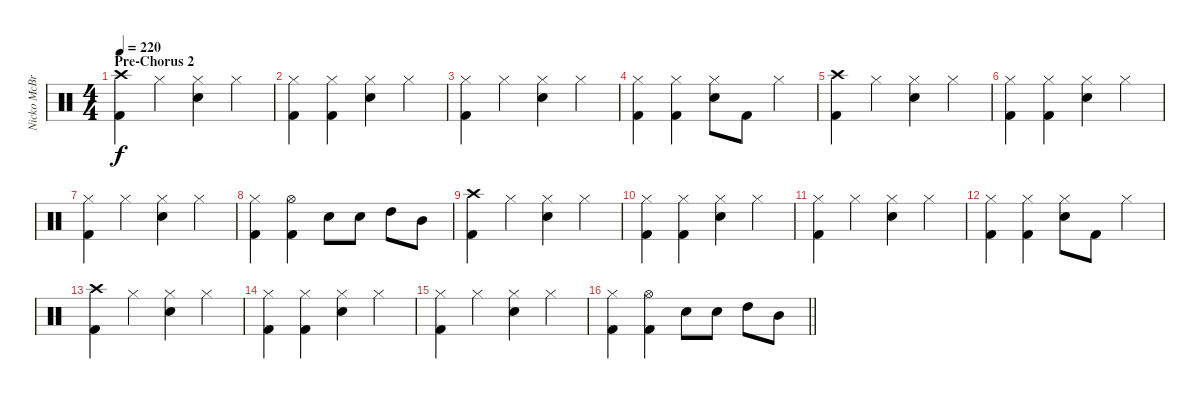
\track ("Nicko McBrain" "Nicko McBr") {instrument percussion}
\staff {score}
\articulation defaults
\ts (4 4)
\section ("" "Pre-Chorus 2")
\tempo 220
\clef neutral
\ks c
("Crash high (hit)" "Kick (hit) 2").4{dy f} "Hi-Hat (closed)".4 ("Hi-Hat (closed)" "Electric Snare (hit)").4 "Hi-Hat (closed)".4 |
("Hi-Hat (closed)" "Kick (hit) 2").4 ("Hi-Hat (closed)" "Kick (hit) 2").4 ("Hi-Hat (closed)" "Electric Snare (hit)").4 "Hi-Hat (closed)".4 |
("Hi-Hat (closed)" "Kick (hit) 2").4 "Hi-Hat (closed)".4 ("Hi-Hat (closed)" "Electric Snare (hit)").4 "Hi-Hat (closed)".4 |
("Hi-Hat (closed)" "Kick (hit) 2").4 ("Hi-Hat (closed)" "Kick (hit) 2").4 ("Hi-Hat (closed)" "Electric Snare (hit)").8 "Kick (hit) 2".8 "Hi-Hat (closed)".4 |
("Crash high (hit)" "Kick (hit) 2").4 "Hi-Hat (closed)".4 ("Hi-Hat (closed)" "Electric Snare (hit)").4 "Hi-Hat (closed)".4 |
("Hi-Hat (closed)" "Kick (hit) 2").4 ("Hi-Hat (closed)" "Kick (hit) 2").4 ("Hi-Hat (closed)" "Electric Snare (hit)").4 "Hi-Hat (closed)".4 |
("Hi-Hat (closed)" "Kick (hit) 2").4 "Hi-Hat (closed)".4 ("Hi-Hat (closed)" "Electric Snare (hit)").4 "Hi-Hat (closed)".4 |
("Hi-Hat (closed)" "Kick (hit) 2").4 ("Hi-Hat (open)" "Kick (hit) 2").4 "Electric Snare (hit)".8 "Electric Snare (hit)".8 "High Tom (hit)".8 "Mid Tom (hit)".8 |
("Crash high (hit)" "Kick (hit) 2").4 "Hi-Hat (closed)".4 ("Hi-Hat (closed)" "Electric Snare (hit)").4 "Hi-Hat (closed)".4 |
("Hi-Hat (closed)" "Kick (hit) 2").4 ("Hi-Hat (closed)" "Kick (hit) 2").4 ("Hi-Hat (closed)" "Electric Snare (hit)").4 "Hi-Hat (closed)".4 |
("Hi-Hat (closed)" "Kick (hit) 2").4 "Hi-Hat (closed)".4 ("Hi-Hat (closed)" "Electric Snare (hit)").4 "Hi-Hat (closed)".4 |
("Hi-Hat (closed)" "Kick (hit) 2").4 ("Hi-Hat (closed)" "Kick (hit) 2").4 ("Hi-Hat (closed)" "Electric Snare (hit)").8 "Kick (hit) 2".8 "Hi-Hat (closed)".4 |
("Crash high (hit)" "Kick (hit) 2").4 "Hi-Hat (closed)".4 ("Hi-Hat (closed)" "Electric Snare (hit)").4 "Hi-Hat (closed)".4 |
("Hi-Hat (closed)" "Kick (hit) 2").4 ("Hi-Hat (closed)" "Kick (hit) 2").4 ("Hi-Hat (closed)" "Electric Snare (hit)").4 "Hi-Hat (closed)".4 |
("Hi-Hat (closed)" "Kick (hit) 2").4 "Hi-Hat (closed)".4 ("Hi-Hat (closed)" "Electric Snare (hit)").4 "Hi-Hat (closed)".4 |
\barLineRight lightlight
("Hi-Hat (closed)" "Kick (hit) 2").4 ("Hi-Hat (open)" "Kick (hit) 2").4 "Electric Snare (hit)".8 "Electric Snare (hit)".8 "High Tom (hit)".8 "Mid Tom (hit)".8
